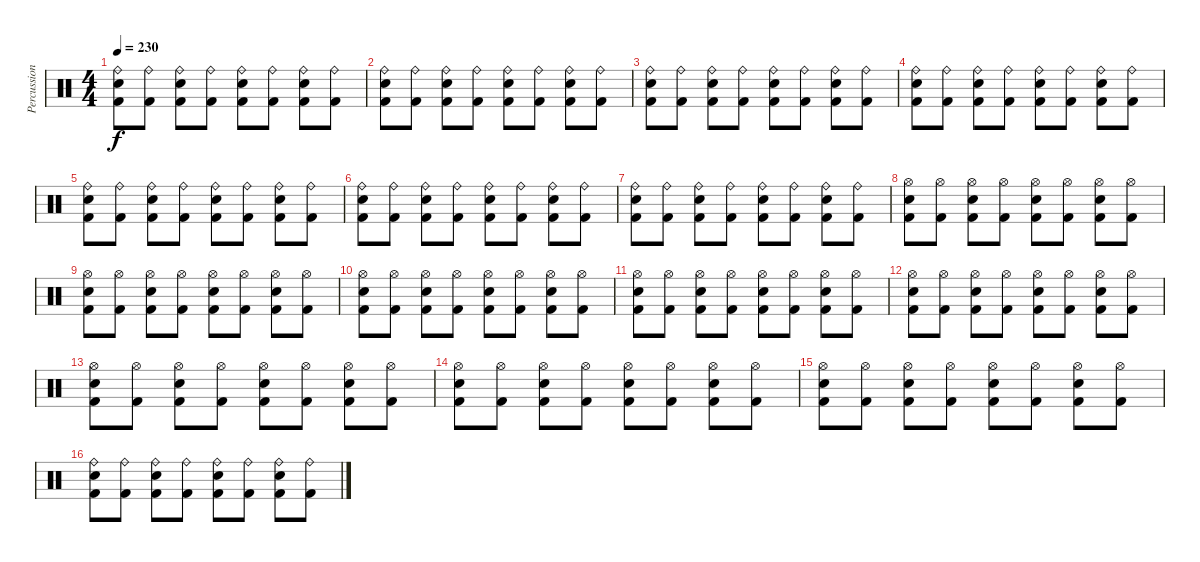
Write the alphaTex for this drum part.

\track ("Percussions" "Percussion") {instrument percussion}
\staff {score}
\articulation defaults
\ts (4 4)
\tempo 230
\clef neutral
\ks c
("Kick (hit) 2" "Snare (hit) 2" "Ride (bell)").8{dy f} ("Kick (hit) 2" "Ride (bell)").8 ("Kick (hit) 2" "Snare (hit) 2" "Ride (bell)").8 ("Kick (hit) 2" "Ride (bell)").8 ("Kick (hit) 2" "Snare (hit) 2" "Ride (bell)").8 ("Kick (hit) 2" "Ride (bell)").8 ("Kick (hit) 2" "Snare (hit) 2" "Ride (bell)").8 ("Kick (hit) 2" "Ride (bell)").8 |
("Kick (hit) 2" "Snare (hit) 2" "Ride (bell)").8 ("Kick (hit) 2" "Ride (bell)").8 ("Kick (hit) 2" "Snare (hit) 2" "Ride (bell)").8 ("Kick (hit) 2" "Ride (bell)").8 ("Kick (hit) 2" "Snare (hit) 2" "Ride (bell)").8 ("Kick (hit) 2" "Ride (bell)").8 ("Kick (hit) 2" "Snare (hit) 2" "Ride (bell)").8 ("Kick (hit) 2" "Ride (bell)").8 |
("Kick (hit) 2" "Snare (hit) 2" "Ride (bell)").8 ("Kick (hit) 2" "Ride (bell)").8 ("Kick (hit) 2" "Snare (hit) 2" "Ride (bell)").8 ("Kick (hit) 2" "Ride (bell)").8 ("Kick (hit) 2" "Snare (hit) 2" "Ride (bell)").8 ("Kick (hit) 2" "Ride (bell)").8 ("Kick (hit) 2" "Snare (hit) 2" "Ride (bell)").8 ("Kick (hit) 2" "Ride (bell)").8 |
("Kick (hit) 2" "Snare (hit) 2" "Ride (bell)").8 ("Kick (hit) 2" "Ride (bell)").8 ("Kick (hit) 2" "Snare (hit) 2" "Ride (bell)").8 ("Kick (hit) 2" "Ride (bell)").8 ("Kick (hit) 2" "Snare (hit) 2" "Ride (bell)").8 ("Kick (hit) 2" "Ride (bell)").8 ("Kick (hit) 2" "Snare (hit) 2" "Ride (bell)").8 ("Kick (hit) 2" "Ride (bell)").8 |
("Kick (hit) 2" "Snare (hit) 2" "Ride (bell)").8 ("Kick (hit) 2" "Ride (bell)").8 ("Kick (hit) 2" "Snare (hit) 2" "Ride (bell)").8 ("Kick (hit) 2" "Ride (bell)").8 ("Kick (hit) 2" "Snare (hit) 2" "Ride (bell)").8 ("Kick (hit) 2" "Ride (bell)").8 ("Kick (hit) 2" "Snare (hit) 2" "Ride (bell)").8 ("Kick (hit) 2" "Ride (bell)").8 |
("Kick (hit) 2" "Snare (hit) 2" "Ride (bell)").8 ("Kick (hit) 2" "Ride (bell)").8 ("Kick (hit) 2" "Snare (hit) 2" "Ride (bell)").8 ("Kick (hit) 2" "Ride (bell)").8 ("Kick (hit) 2" "Snare (hit) 2" "Ride (bell)").8 ("Kick (hit) 2" "Ride (bell)").8 ("Kick (hit) 2" "Snare (hit) 2" "Ride (bell)").8 ("Kick (hit) 2" "Ride (bell)").8 |
("Kick (hit) 2" "Snare (hit) 2" "Ride (bell)").8 ("Kick (hit) 2" "Ride (bell)").8 ("Kick (hit) 2" "Snare (hit) 2" "Ride (bell)").8 ("Kick (hit) 2" "Ride (bell)").8 ("Kick (hit) 2" "Snare (hit) 2" "Ride (bell)").8 ("Kick (hit) 2" "Ride (bell)").8 ("Kick (hit) 2" "Snare (hit) 2" "Ride (bell)").8 ("Kick (hit) 2" "Ride (bell)").8 |
("Kick (hit) 2" "Snare (hit) 2" "Hi-Hat (open)").8 ("Kick (hit) 2" "Hi-Hat (open)").8 ("Kick (hit) 2" "Snare (hit) 2" "Hi-Hat (open)").8 ("Kick (hit) 2" "Hi-Hat (open)").8 ("Kick (hit) 2" "Snare (hit) 2" "Hi-Hat (open)").8 ("Kick (hit) 2" "Hi-Hat (open)").8 ("Kick (hit) 2" "Snare (hit) 2" "Hi-Hat (open)").8 ("Kick (hit) 2" "Hi-Hat (open)").8 |
("Kick (hit) 2" "Snare (hit) 2" "Hi-Hat (open)").8 ("Kick (hit) 2" "Hi-Hat (open)").8 ("Kick (hit) 2" "Snare (hit) 2" "Hi-Hat (open)").8 ("Kick (hit) 2" "Hi-Hat (open)").8 ("Kick (hit) 2" "Snare (hit) 2" "Hi-Hat (open)").8 ("Kick (hit) 2" "Hi-Hat (open)").8 ("Kick (hit) 2" "Snare (hit) 2" "Hi-Hat (open)").8 ("Kick (hit) 2" "Hi-Hat (open)").8 |
("Kick (hit) 2" "Snare (hit) 2" "Hi-Hat (open)").8 ("Kick (hit) 2" "Hi-Hat (open)").8 ("Kick (hit) 2" "Snare (hit) 2" "Hi-Hat (open)").8 ("Kick (hit) 2" "Hi-Hat (open)").8 ("Kick (hit) 2" "Snare (hit) 2" "Hi-Hat (open)").8 ("Kick (hit) 2" "Hi-Hat (open)").8 ("Kick (hit) 2" "Snare (hit) 2" "Hi-Hat (open)").8 ("Kick (hit) 2" "Hi-Hat (open)").8 |
("Kick (hit) 2" "Snare (hit) 2" "Hi-Hat (open)").8 ("Kick (hit) 2" "Hi-Hat (open)").8 ("Kick (hit) 2" "Snare (hit) 2" "Hi-Hat (open)").8 ("Kick (hit) 2" "Hi-Hat (open)").8 ("Kick (hit) 2" "Snare (hit) 2" "Hi-Hat (open)").8 ("Kick (hit) 2" "Hi-Hat (open)").8 ("Kick (hit) 2" "Snare (hit) 2" "Hi-Hat (open)").8 ("Kick (hit) 2" "Hi-Hat (open)").8 |
("Kick (hit) 2" "Snare (hit) 2" "Hi-Hat (open)").8 ("Kick (hit) 2" "Hi-Hat (open)").8 ("Kick (hit) 2" "Snare (hit) 2" "Hi-Hat (open)").8 ("Kick (hit) 2" "Hi-Hat (open)").8 ("Kick (hit) 2" "Snare (hit) 2" "Hi-Hat (open)").8 ("Kick (hit) 2" "Hi-Hat (open)").8 ("Kick (hit) 2" "Snare (hit) 2" "Hi-Hat (open)").8 ("Kick (hit) 2" "Hi-Hat (open)").8 |
("Kick (hit) 2" "Snare (hit) 2" "Hi-Hat (open)").8 ("Kick (hit) 2" "Hi-Hat (open)").8 ("Kick (hit) 2" "Snare (hit) 2" "Hi-Hat (open)").8 ("Kick (hit) 2" "Hi-Hat (open)").8 ("Kick (hit) 2" "Snare (hit) 2" "Hi-Hat (open)").8 ("Kick (hit) 2" "Hi-Hat (open)").8 ("Kick (hit) 2" "Snare (hit) 2" "Hi-Hat (open)").8 ("Kick (hit) 2" "Hi-Hat (open)").8 |
("Kick (hit) 2" "Snare (hit) 2" "Hi-Hat (open)").8 ("Kick (hit) 2" "Hi-Hat (open)").8 ("Kick (hit) 2" "Snare (hit) 2" "Hi-Hat (open)").8 ("Kick (hit) 2" "Hi-Hat (open)").8 ("Kick (hit) 2" "Snare (hit) 2" "Hi-Hat (open)").8 ("Kick (hit) 2" "Hi-Hat (open)").8 ("Kick (hit) 2" "Snare (hit) 2" "Hi-Hat (open)").8 ("Kick (hit) 2" "Hi-Hat (open)").8 |
("Kick (hit) 2" "Snare (hit) 2" "Hi-Hat (open)").8 ("Kick (hit) 2" "Hi-Hat (open)").8 ("Kick (hit) 2" "Snare (hit) 2" "Hi-Hat (open)").8 ("Kick (hit) 2" "Hi-Hat (open)").8 ("Kick (hit) 2" "Snare (hit) 2" "Hi-Hat (open)").8 ("Kick (hit) 2" "Hi-Hat (open)").8 ("Kick (hit) 2" "Snare (hit) 2" "Hi-Hat (open)").8 ("Kick (hit) 2" "Hi-Hat (open)").8 |
("Kick (hit) 2" "Snare (hit) 2" "Ride (bell)").8 ("Kick (hit) 2" "Ride (bell)").8 ("Kick (hit) 2" "Snare (hit) 2" "Ride (bell)").8 ("Kick (hit) 2" "Ride (bell)").8 ("Kick (hit) 2" "Snare (hit) 2" "Ride (bell)").8 ("Kick (hit) 2" "Ride (bell)").8 ("Kick (hit) 2" "Snare (hit) 2" "Ride (bell)").8 ("Kick (hit) 2" "Ride (bell)").8
